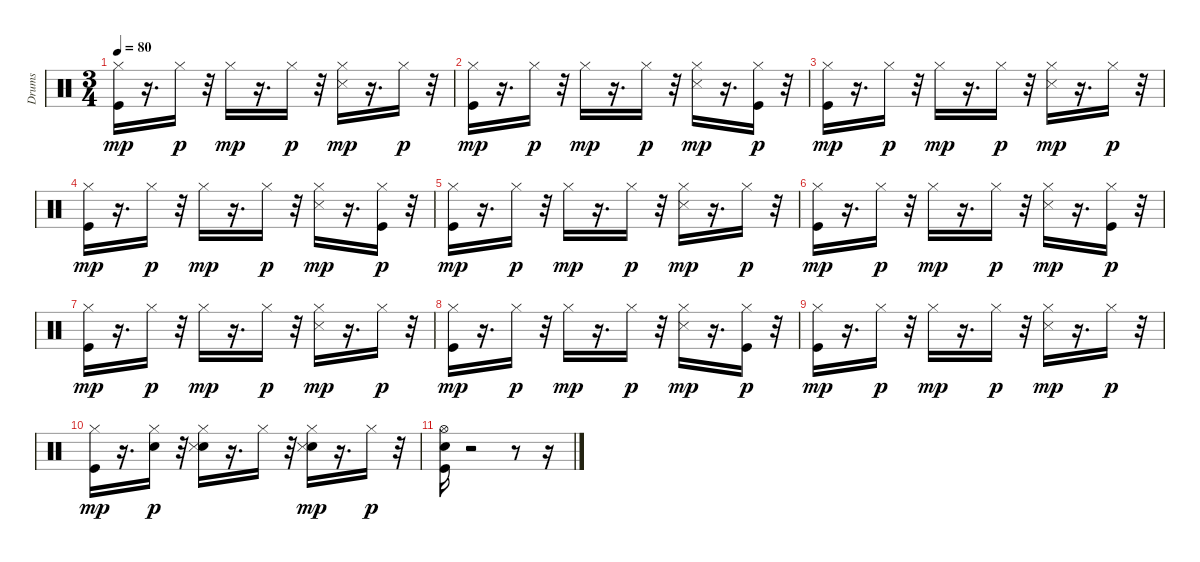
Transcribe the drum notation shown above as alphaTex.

\track ("Drums " "Drums ") {instrument percussion}
\staff {score}
\articulation defaults
\ts (3 4)
\tempo 80
\clef neutral
\ks c
("Kick (hit)" "Hi-Hat (closed)").16{dy mp} r.16{d} "Hi-Hat (closed)".16{dy p} r.32 "Hi-Hat (closed)".16{dy mp} r.16{d} "Hi-Hat (closed)".16{dy p} r.32 ("Hi-Hat (closed)" "Snare (side stick) 3").16{dy mp} r.16{d} "Hi-Hat (closed)".16{dy p} r.32 |
("Kick (hit)" "Hi-Hat (closed)").16{dy mp} r.16{d} "Hi-Hat (closed)".16{dy p} r.32 "Hi-Hat (closed)".16{dy mp} r.16{d} "Hi-Hat (closed)".16{dy p} r.32 ("Hi-Hat (closed)" "Snare (side stick) 3").16{dy mp} r.16{d} ("Kick (hit)" "Hi-Hat (closed)").16{dy p} r.32 |
("Kick (hit)" "Hi-Hat (closed)").16{dy mp} r.16{d} "Hi-Hat (closed)".16{dy p} r.32 "Hi-Hat (closed)".16{dy mp} r.16{d} "Hi-Hat (closed)".16{dy p} r.32 ("Hi-Hat (closed)" "Snare (side stick) 3").16{dy mp} r.16{d} "Hi-Hat (closed)".16{dy p} r.32 |
("Kick (hit)" "Hi-Hat (closed)").16{dy mp} r.16{d} "Hi-Hat (closed)".16{dy p} r.32 "Hi-Hat (closed)".16{dy mp} r.16{d} "Hi-Hat (closed)".16{dy p} r.32 ("Hi-Hat (closed)" "Snare (side stick) 3").16{dy mp} r.16{d} ("Kick (hit)" "Hi-Hat (closed)").16{dy p} r.32 |
("Kick (hit)" "Hi-Hat (closed)").16{dy mp} r.16{d} "Hi-Hat (closed)".16{dy p} r.32 "Hi-Hat (closed)".16{dy mp} r.16{d} "Hi-Hat (closed)".16{dy p} r.32 ("Hi-Hat (closed)" "Snare (side stick) 3").16{dy mp} r.16{d} "Hi-Hat (closed)".16{dy p} r.32 |
("Kick (hit)" "Hi-Hat (closed)").16{dy mp} r.16{d} "Hi-Hat (closed)".16{dy p} r.32 "Hi-Hat (closed)".16{dy mp} r.16{d} "Hi-Hat (closed)".16{dy p} r.32 ("Hi-Hat (closed)" "Snare (side stick) 3").16{dy mp} r.16{d} ("Kick (hit)" "Hi-Hat (closed)").16{dy p} r.32 |
("Kick (hit)" "Hi-Hat (closed)").16{dy mp} r.16{d} "Hi-Hat (closed)".16{dy p} r.32 "Hi-Hat (closed)".16{dy mp} r.16{d} "Hi-Hat (closed)".16{dy p} r.32 ("Hi-Hat (closed)" "Snare (side stick) 3").16{dy mp} r.16{d} "Hi-Hat (closed)".16{dy p} r.32 |
("Kick (hit)" "Hi-Hat (closed)").16{dy mp} r.16{d} "Hi-Hat (closed)".16{dy p} r.32 "Hi-Hat (closed)".16{dy mp} r.16{d} "Hi-Hat (closed)".16{dy p} r.32 ("Hi-Hat (closed)" "Snare (side stick) 3").16{dy mp} r.16{d} ("Kick (hit)" "Hi-Hat (closed)").16{dy p} r.32 |
("Kick (hit)" "Hi-Hat (closed)").16{dy mp} r.16{d} "Hi-Hat (closed)".16{dy p} r.32 "Hi-Hat (closed)".16{dy mp} r.16{d} "Hi-Hat (closed)".16{dy p} r.32 ("Hi-Hat (closed)" "Snare (side stick) 3").16{dy mp} r.16{d} "Hi-Hat (closed)".16{dy p} r.32 |
("Kick (hit)" "Hi-Hat (closed)").16{dy mp} r.16{d} ("Snare (hit) 2" "Hi-Hat (closed)").16{dy p} r.32 ("Snare (hit) 2" "Hi-Hat (closed)" "Snare (side stick) 3").16 r.16{d} "Hi-Hat (closed)".16 r.32 ("Snare (hit) 2" "Hi-Hat (closed)" "Snare (side stick) 3").16{dy mp} r.16{d} "Hi-Hat (closed)".16{dy p} r.32 |
("Kick (hit)" "Snare (hit) 2" "Hi-Hat (open)").16 r.2 r.8 r.16
